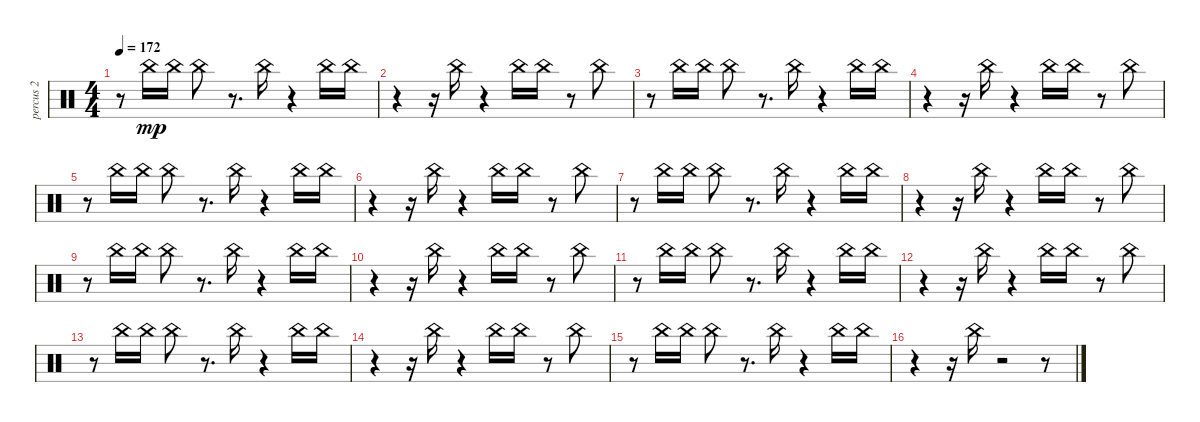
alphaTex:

\track ("percus 2" "percus 2") {instrument percussion}
\staff {score}
\articulation defaults
\ts (4 4)
\tempo 172
\clef neutral
\ks c
r.8{dy mp} "China (hit)".16 "China (hit)".16 "China (hit)".8 r.8{d} "China (hit)".16 r.4 "China (hit)".16 "China (hit)".16 |
r.4 r.16 "China (hit)".16 r.4 "China (hit)".16 "China (hit)".16 r.8 "China (hit)".8 |
r.8 "China (hit)".16 "China (hit)".16 "China (hit)".8 r.8{d} "China (hit)".16 r.4 "China (hit)".16 "China (hit)".16 |
r.4 r.16 "China (hit)".16 r.4 "China (hit)".16 "China (hit)".16 r.8 "China (hit)".8 |
r.8 "China (hit)".16 "China (hit)".16 "China (hit)".8 r.8{d} "China (hit)".16 r.4 "China (hit)".16 "China (hit)".16 |
r.4 r.16 "China (hit)".16 r.4 "China (hit)".16 "China (hit)".16 r.8 "China (hit)".8 |
r.8 "China (hit)".16 "China (hit)".16 "China (hit)".8 r.8{d} "China (hit)".16 r.4 "China (hit)".16 "China (hit)".16 |
r.4 r.16 "China (hit)".16 r.4 "China (hit)".16 "China (hit)".16 r.8 "China (hit)".8 |
r.8 "China (hit)".16 "China (hit)".16 "China (hit)".8 r.8{d} "China (hit)".16 r.4 "China (hit)".16 "China (hit)".16 |
r.4 r.16 "China (hit)".16 r.4 "China (hit)".16 "China (hit)".16 r.8 "China (hit)".8 |
r.8 "China (hit)".16 "China (hit)".16 "China (hit)".8 r.8{d} "China (hit)".16 r.4 "China (hit)".16 "China (hit)".16 |
r.4 r.16 "China (hit)".16 r.4 "China (hit)".16 "China (hit)".16 r.8 "China (hit)".8 |
r.8 "China (hit)".16 "China (hit)".16 "China (hit)".8 r.8{d} "China (hit)".16 r.4 "China (hit)".16 "China (hit)".16 |
r.4 r.16 "China (hit)".16 r.4 "China (hit)".16 "China (hit)".16 r.8 "China (hit)".8 |
r.8 "China (hit)".16 "China (hit)".16 "China (hit)".8 r.8{d} "China (hit)".16 r.4 "China (hit)".16 "China (hit)".16 |
r.4 r.16 "China (hit)".16 r.2 r.8
